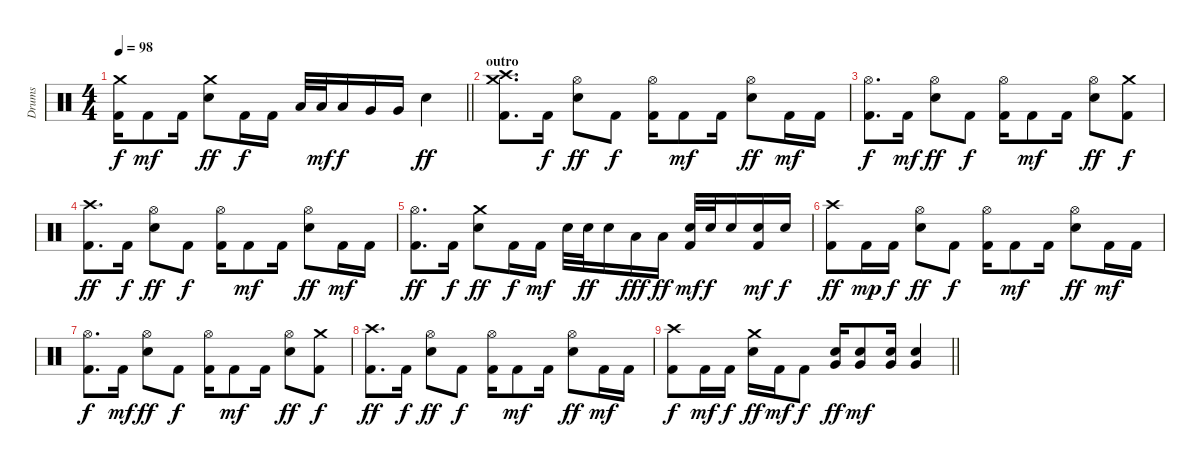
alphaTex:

\track ("Drums" "Drums") {instrument percussion}
\staff {score}
\articulation defaults
\ts (4 4)
\tempo 98
\clef neutral
\barLineRight lightlight
\ks c
("Crash medium (hit)" "Kick (hit) 2").16{dy f} "Kick (hit) 2".8{dy mf} "Kick (hit) 2".16 ("Crash medium (hit)" "Electric Snare (hit)").8{dy ff} "Kick (hit) 2".16{dy f} "Kick (hit) 2".16 "Low Tom (hit)".32 "Low Tom (hit)".32{dy mf} "Low Tom (hit)".16{dy f} "Very Low Tom (hit)".16 "Very Low Tom (hit)".16 "Electric Snare (hit)".4{dy ff} |
\section ("" "outro")
("Crash medium (hit)" "Crash high (hit)" "Kick (hit) 2").8{d} "Kick (hit) 2".16{dy f} ("Hi-Hat (open)" "Electric Snare (hit)").8{dy ff} "Kick (hit) 2".8{dy f} ("Hi-Hat (open)" "Kick (hit) 2").16 "Kick (hit) 2".8{dy mf} "Kick (hit) 2".16 ("Hi-Hat (open)" "Electric Snare (hit)").8{dy ff} "Kick (hit) 2".16{dy mf} "Kick (hit) 2".16 |
("Hi-Hat (open)" "Kick (hit) 2").8{d dy f} "Kick (hit) 2".16{dy mf} ("Hi-Hat (open)" "Electric Snare (hit)").8{dy ff} "Kick (hit) 2".8{dy f} ("Hi-Hat (open)" "Kick (hit) 2").16 "Kick (hit) 2".8{dy mf} "Kick (hit) 2".16 ("Hi-Hat (open)" "Electric Snare (hit)").8{dy ff} ("Crash medium (hit)" "Kick (hit) 2").8{dy f} |
("Crash high (hit)" "Kick (hit) 2").8{d dy ff} "Kick (hit) 2".16{dy f} ("Hi-Hat (open)" "Electric Snare (hit)").8{dy ff} "Kick (hit) 2".8{dy f} ("Hi-Hat (open)" "Kick (hit) 2").16 "Kick (hit) 2".8{dy mf} "Kick (hit) 2".16 ("Hi-Hat (open)" "Electric Snare (hit)").8{dy ff} "Kick (hit) 2".16{dy mf} "Kick (hit) 2".16 |
("Hi-Hat (open)" "Kick (hit) 2").8{d dy ff} "Kick (hit) 2".16{dy f} ("Crash medium (hit)" "Electric Snare (hit)").8{dy ff} "Kick (hit) 2".16{dy f} "Kick (hit) 2".16{dy mf} "Electric Snare (hit)".32 "Electric Snare (hit)".32{dy ff} "Electric Snare (hit)".16 "Low Tom (hit)".16{dy fff} "Low Tom (hit)".16{dy ff} ("Electric Snare (hit)" "Kick (hit) 2").32{dy mf} "Electric Snare (hit)".32{dy f} "Electric Snare (hit)".16 ("Electric Snare (hit)" "Kick (hit) 2").16{dy mf} "Electric Snare (hit)".16{dy f} |
("Crash high (hit)" "Kick (hit) 2").8{dy ff} "Kick (hit) 2".16{dy mp} "Kick (hit) 2".16{dy f} ("Hi-Hat (open)" "Electric Snare (hit)").8{dy ff} "Kick (hit) 2".8{dy f} ("Hi-Hat (open)" "Kick (hit) 2").16 "Kick (hit) 2".8{dy mf} "Kick (hit) 2".16 ("Hi-Hat (open)" "Electric Snare (hit)").8{dy ff} "Kick (hit) 2".16{dy mf} "Kick (hit) 2".16 |
("Hi-Hat (open)" "Kick (hit) 2").8{d dy f} "Kick (hit) 2".16{dy mf} ("Hi-Hat (open)" "Electric Snare (hit)").8{dy ff} "Kick (hit) 2".8{dy f} ("Hi-Hat (open)" "Kick (hit) 2").16 "Kick (hit) 2".8{dy mf} "Kick (hit) 2".16 ("Hi-Hat (open)" "Electric Snare (hit)").8{dy ff} ("Crash medium (hit)" "Kick (hit) 2").8{dy f} |
("Crash high (hit)" "Kick (hit) 2").8{d dy ff} "Kick (hit) 2".16{dy f} ("Hi-Hat (open)" "Electric Snare (hit)").8{dy ff} "Kick (hit) 2".8{dy f} ("Hi-Hat (open)" "Kick (hit) 2").16 "Kick (hit) 2".8{dy mf} "Kick (hit) 2".16 ("Hi-Hat (open)" "Electric Snare (hit)").8{dy ff} "Kick (hit) 2".16{dy mf} "Kick (hit) 2".16 |
\barLineRight lightlight
("Crash high (hit)" "Kick (hit) 2").8{dy f} "Kick (hit) 2".16{dy mf} "Kick (hit) 2".16{dy f} ("Crash medium (hit)" "Electric Snare (hit)").16{dy ff} "Kick (hit) 2".16{dy mf} "Kick (hit) 2".8{dy f} ("Very Low Tom (hit)" "Electric Snare (hit)").16{dy ff} ("Very Low Tom (hit)" "Electric Snare (hit)").8{dy mf} ("Very Low Tom (hit)" "Electric Snare (hit)").16 ("Very Low Tom (hit)" "Electric Snare (hit)").4
